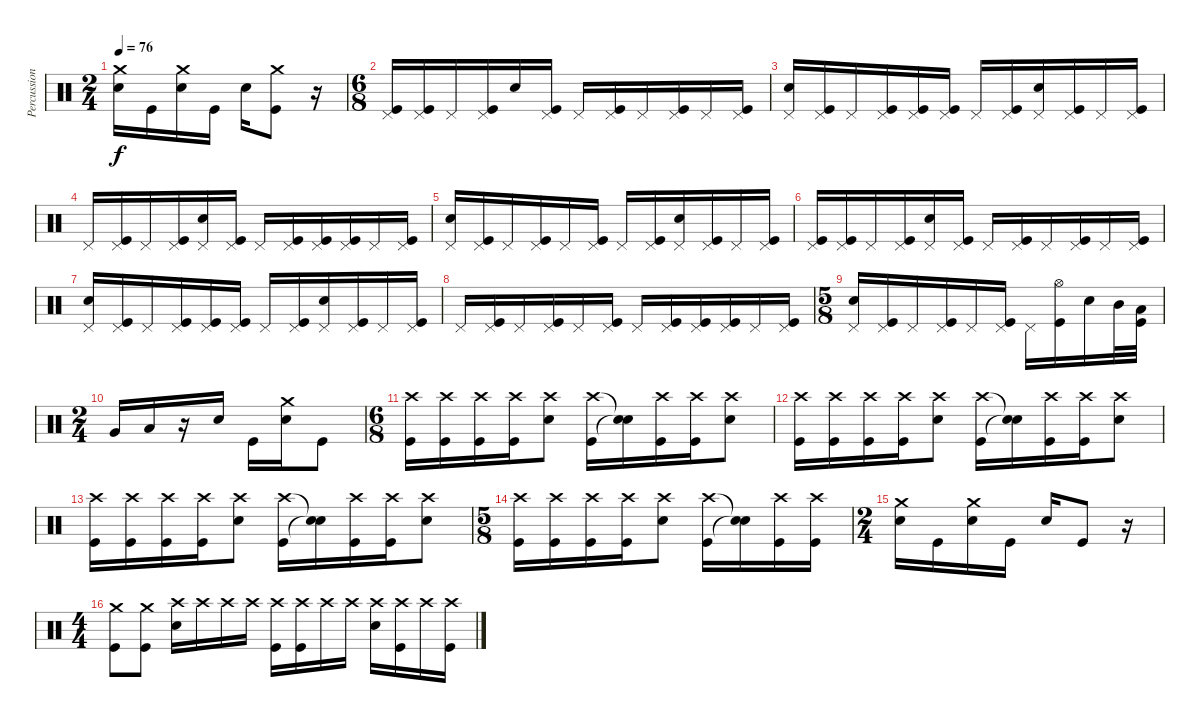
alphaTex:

\track ("Percussion" "Percussion") {instrument percussion}
\staff {score}
\articulation defaults
\ts (2 4)
\tempo 76
\clef neutral
\ks c
("Crash medium (hit)" "Snare (hit) 2").16{dy f} "Kick (hit)".16 ("Crash medium (hit)" "Snare (hit) 2").16 "Kick (hit)".16 "Snare (hit) 2".16 ("Crash medium (hit)" "Kick (hit)").8 r.16 |
\ts (6 8)
("Pedal Hi-Hat (hit)" "Kick (hit)").16 ("Pedal Hi-Hat (hit)" "Kick (hit)").16 "Pedal Hi-Hat (hit)".16 ("Pedal Hi-Hat (hit)" "Kick (hit)").16 "Snare (hit) 2".16 ("Pedal Hi-Hat (hit)" "Kick (hit)").16 "Pedal Hi-Hat (hit)".16 ("Pedal Hi-Hat (hit)" "Kick (hit)").16 "Pedal Hi-Hat (hit)".16 ("Pedal Hi-Hat (hit)" "Kick (hit)").16 "Pedal Hi-Hat (hit)".16 ("Pedal Hi-Hat (hit)" "Kick (hit)").16 |
("Pedal Hi-Hat (hit)" "Snare (hit) 2").16 ("Pedal Hi-Hat (hit)" "Kick (hit)").16 "Pedal Hi-Hat (hit)".16 ("Pedal Hi-Hat (hit)" "Kick (hit)").16 ("Pedal Hi-Hat (hit)" "Kick (hit)").16 ("Pedal Hi-Hat (hit)" "Kick (hit)").16 "Pedal Hi-Hat (hit)".16 ("Pedal Hi-Hat (hit)" "Kick (hit)").16 ("Pedal Hi-Hat (hit)" "Snare (hit) 2").16 ("Pedal Hi-Hat (hit)" "Kick (hit)").16 "Pedal Hi-Hat (hit)".16 ("Pedal Hi-Hat (hit)" "Kick (hit)").16 |
"Pedal Hi-Hat (hit)".16 ("Pedal Hi-Hat (hit)" "Kick (hit)").16 "Pedal Hi-Hat (hit)".16 ("Pedal Hi-Hat (hit)" "Kick (hit)").16 ("Pedal Hi-Hat (hit)" "Snare (hit) 2").16 ("Pedal Hi-Hat (hit)" "Kick (hit)").16 "Pedal Hi-Hat (hit)".16 ("Pedal Hi-Hat (hit)" "Kick (hit)").16 ("Pedal Hi-Hat (hit)" "Kick (hit)").16 ("Pedal Hi-Hat (hit)" "Kick (hit)").16 "Pedal Hi-Hat (hit)".16 ("Pedal Hi-Hat (hit)" "Kick (hit)").16 |
("Pedal Hi-Hat (hit)" "Snare (hit) 2").16 ("Pedal Hi-Hat (hit)" "Kick (hit)").16 "Pedal Hi-Hat (hit)".16 ("Pedal Hi-Hat (hit)" "Kick (hit)").16 "Pedal Hi-Hat (hit)".16 ("Pedal Hi-Hat (hit)" "Kick (hit)").16 "Pedal Hi-Hat (hit)".16 ("Pedal Hi-Hat (hit)" "Kick (hit)").16 ("Pedal Hi-Hat (hit)" "Snare (hit) 2").16 ("Pedal Hi-Hat (hit)" "Kick (hit)").16 "Pedal Hi-Hat (hit)".16 ("Pedal Hi-Hat (hit)" "Kick (hit)").16 |
("Pedal Hi-Hat (hit)" "Kick (hit)").16 ("Pedal Hi-Hat (hit)" "Kick (hit)").16 "Pedal Hi-Hat (hit)".16 ("Pedal Hi-Hat (hit)" "Kick (hit)").16 ("Pedal Hi-Hat (hit)" "Snare (hit) 2").16 ("Pedal Hi-Hat (hit)" "Kick (hit)").16 "Pedal Hi-Hat (hit)".16 ("Pedal Hi-Hat (hit)" "Kick (hit)").16 "Pedal Hi-Hat (hit)".16 ("Pedal Hi-Hat (hit)" "Kick (hit)").16 "Pedal Hi-Hat (hit)".16 ("Pedal Hi-Hat (hit)" "Kick (hit)").16 |
("Pedal Hi-Hat (hit)" "Snare (hit) 2").16 ("Pedal Hi-Hat (hit)" "Kick (hit)").16 "Pedal Hi-Hat (hit)".16 ("Pedal Hi-Hat (hit)" "Kick (hit)").16 ("Pedal Hi-Hat (hit)" "Kick (hit)").16 ("Pedal Hi-Hat (hit)" "Kick (hit)").16 "Pedal Hi-Hat (hit)".16 ("Pedal Hi-Hat (hit)" "Kick (hit)").16 ("Pedal Hi-Hat (hit)" "Snare (hit) 2").16 ("Pedal Hi-Hat (hit)" "Kick (hit)").16 "Pedal Hi-Hat (hit)".16 ("Pedal Hi-Hat (hit)" "Kick (hit)").16 |
"Pedal Hi-Hat (hit)".16 ("Pedal Hi-Hat (hit)" "Kick (hit)").16 "Pedal Hi-Hat (hit)".16 ("Pedal Hi-Hat (hit)" "Kick (hit)").16 "Pedal Hi-Hat (hit)".16 ("Pedal Hi-Hat (hit)" "Kick (hit)").16 "Pedal Hi-Hat (hit)".16 ("Pedal Hi-Hat (hit)" "Kick (hit)").16 ("Pedal Hi-Hat (hit)" "Kick (hit)").16 ("Pedal Hi-Hat (hit)" "Kick (hit)").16 "Pedal Hi-Hat (hit)".16 ("Pedal Hi-Hat (hit)" "Kick (hit)").16 |
\ts (5 8)
("Pedal Hi-Hat (hit)" "Snare (hit) 2").16 ("Pedal Hi-Hat (hit)" "Kick (hit)").16 "Pedal Hi-Hat (hit)".16 ("Pedal Hi-Hat (hit)" "Kick (hit)").16 "Pedal Hi-Hat (hit)".16 ("Pedal Hi-Hat (hit)" "Kick (hit)").16 "Pedal Hi-Hat (hit)".16 ("Hi-Hat (open)" "Kick (hit)").16 "Snare (hit) 2".16 "Mid Tom (hit)".32 ("Kick (hit)" "Low Tom (hit)").32 |
\ts (2 4)
"Very Low Tom (hit)".16 "Low Floor Tom (hit)".16 r.16 "Snare (hit) 2".16 "Kick (hit)".16 ("Crash medium (hit)" "Snare (hit) 2").16 "Kick (hit)".8 |
\ts (6 8)
("Crash high (hit)" "Kick (hit)").16 ("Crash high (hit)" "Kick (hit)").16 ("Crash high (hit)" "Kick (hit)").16 ("Crash high (hit)" "Kick (hit)").16 ("Crash high (hit)" "Snare (hit) 2").8 ("Crash high (hit)" "Kick (hit)").16 ("Snare (hit)"{t} "Snare (hit)"{t}).16 ("Crash high (hit)" "Kick (hit)").16 ("Crash high (hit)" "Kick (hit)").16 ("Crash high (hit)" "Snare (hit) 2").8 |
("Crash high (hit)" "Kick (hit)").16 ("Crash high (hit)" "Kick (hit)").16 ("Crash high (hit)" "Kick (hit)").16 ("Crash high (hit)" "Kick (hit)").16 ("Crash high (hit)" "Snare (hit) 2").8 ("Crash high (hit)" "Kick (hit)").16 ("Snare (hit)"{t} "Snare (hit)"{t}).16 ("Crash high (hit)" "Kick (hit)").16 ("Crash high (hit)" "Kick (hit)").16 ("Crash high (hit)" "Snare (hit) 2").8 |
("Crash high (hit)" "Kick (hit)").16 ("Crash high (hit)" "Kick (hit)").16 ("Crash high (hit)" "Kick (hit)").16 ("Crash high (hit)" "Kick (hit)").16 ("Crash high (hit)" "Snare (hit) 2").8 ("Crash high (hit)" "Kick (hit)").16 ("Snare (hit)"{t} "Snare (hit)"{t}).16 ("Crash high (hit)" "Kick (hit)").16 ("Crash high (hit)" "Kick (hit)").16 ("Crash high (hit)" "Snare (hit) 2").8 |
\ts (5 8)
("Crash high (hit)" "Kick (hit)").16 ("Crash high (hit)" "Kick (hit)").16 ("Crash high (hit)" "Kick (hit)").16 ("Crash high (hit)" "Kick (hit)").16 ("Crash high (hit)" "Snare (hit) 2").8 ("Crash high (hit)" "Kick (hit)").16 ("Snare (hit)"{t} "Snare (hit)"{t}).16 ("Crash high (hit)" "Kick (hit)").16 ("Crash high (hit)" "Kick (hit)").16 |
\ts (2 4)
("Crash medium (hit)" "Snare (hit) 2").16 "Kick (hit)".16 ("Crash medium (hit)" "Snare (hit) 2").16 "Kick (hit)".16 "Snare (hit) 2".16 "Kick (hit)".8 r.16 |
\ts (4 4)
("Crash medium (hit)" "Kick (hit)").8 ("Crash medium (hit)" "Kick (hit)").8 ("Crash high (hit)" "Snare (hit) 2").16 "Crash high (hit)".16 "Crash high (hit)".16 "Crash high (hit)".16 ("Crash high (hit)" "Kick (hit)").16 ("Crash high (hit)" "Kick (hit)").16 "Crash high (hit)".16 "Crash high (hit)".16 ("Crash high (hit)" "Snare (hit) 2").16 ("Crash high (hit)" "Kick (hit)").16 "Crash high (hit)".16 ("Crash high (hit)" "Kick (hit)").16
